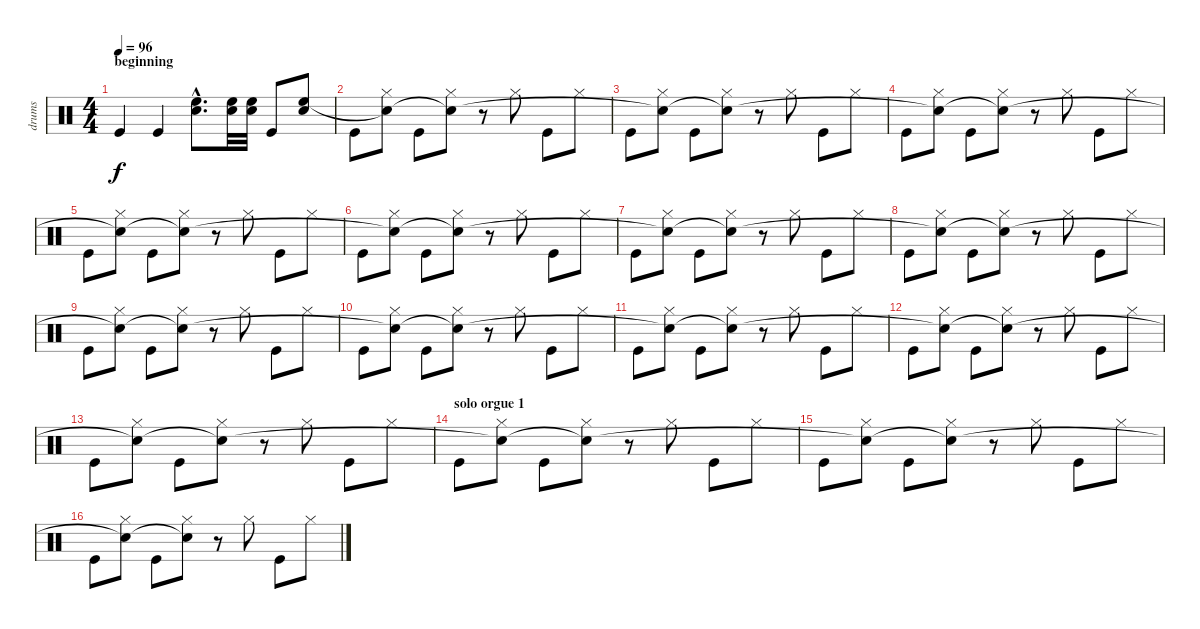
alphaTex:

\track ("drums" "drums") {instrument percussion}
\staff {score}
\articulation defaults
\ts (4 4)
\section ("" "beginning")
\tempo 96
\clef neutral
\ks c "Kick (hit)".4{dy f} "Kick (hit)".4
("Electric Snare (hit)"{hac} "High Floor Tom (hit)"{hac}).8{d} ("Electric Snare (hit)" "High Floor Tom (hit)").32 ("Electric Snare (hit)" "High Floor Tom (hit)").32 "Kick (hit)".8 ("Electric Snare (hit)" "High Floor Tom (hit)").8 |
"Kick (hit)".8 ("Hi-Hat (closed)" "Snare (hit)"{t}).8 "Kick (hit)".8 ("Hi-Hat (closed)" "Snare (hit)"{t}).8 r.8 "Hi-Hat (closed)".8 "Kick (hit)".8 "Hi-Hat (closed)".8 |
"Kick (hit)".8 ("Hi-Hat (closed)" "Snare (hit)"{t}).8 "Kick (hit)".8 ("Hi-Hat (closed)" "Snare (hit)"{t}).8 r.8 "Hi-Hat (closed)".8 "Kick (hit)".8 "Hi-Hat (closed)".8 |
"Kick (hit)".8 ("Hi-Hat (closed)" "Snare (hit)"{t}).8 "Kick (hit)".8 ("Hi-Hat (closed)" "Snare (hit)"{t}).8 r.8 "Hi-Hat (closed)".8 "Kick (hit)".8 "Hi-Hat (closed)".8 |
"Kick (hit)".8 ("Hi-Hat (closed)" "Snare (hit)"{t}).8 "Kick (hit)".8 ("Hi-Hat (closed)" "Snare (hit)"{t}).8 r.8 "Hi-Hat (closed)".8 "Kick (hit)".8 "Hi-Hat (closed)".8 |
"Kick (hit)".8 ("Hi-Hat (closed)" "Snare (hit)"{t}).8 "Kick (hit)".8 ("Hi-Hat (closed)" "Snare (hit)"{t}).8 r.8 "Hi-Hat (closed)".8 "Kick (hit)".8 "Hi-Hat (closed)".8 |
"Kick (hit)".8 ("Hi-Hat (closed)" "Snare (hit)"{t}).8 "Kick (hit)".8 ("Hi-Hat (closed)" "Snare (hit)"{t}).8 r.8 "Hi-Hat (closed)".8 "Kick (hit)".8 "Hi-Hat (closed)".8 |
"Kick (hit)".8 ("Hi-Hat (closed)" "Snare (hit)"{t}).8 "Kick (hit)".8 ("Hi-Hat (closed)" "Snare (hit)"{t}).8 r.8 "Hi-Hat (closed)".8 "Kick (hit)".8 "Hi-Hat (closed)".8 |
"Kick (hit)".8 ("Hi-Hat (closed)" "Snare (hit)"{t}).8 "Kick (hit)".8 ("Hi-Hat (closed)" "Snare (hit)"{t}).8 r.8 "Hi-Hat (closed)".8 "Kick (hit)".8 "Hi-Hat (closed)".8 |
"Kick (hit)".8 ("Hi-Hat (closed)" "Snare (hit)"{t}).8 "Kick (hit)".8 ("Hi-Hat (closed)" "Snare (hit)"{t}).8 r.8 "Hi-Hat (closed)".8 "Kick (hit)".8 "Hi-Hat (closed)".8 |
"Kick (hit)".8 ("Hi-Hat (closed)" "Snare (hit)"{t}).8 "Kick (hit)".8 ("Hi-Hat (closed)" "Snare (hit)"{t}).8 r.8 "Hi-Hat (closed)".8 "Kick (hit)".8 "Hi-Hat (closed)".8 |
"Kick (hit)".8 ("Hi-Hat (closed)" "Snare (hit)"{t}).8 "Kick (hit)".8 ("Hi-Hat (closed)" "Snare (hit)"{t}).8 r.8 "Hi-Hat (closed)".8 "Kick (hit)".8 "Hi-Hat (closed)".8 |
"Kick (hit)".8 ("Hi-Hat (closed)" "Snare (hit)"{t}).8 "Kick (hit)".8 ("Hi-Hat (closed)" "Snare (hit)"{t}).8 r.8 "Hi-Hat (closed)".8 "Kick (hit)".8 "Hi-Hat (closed)".8 |
\section ("" "solo orgue 1")
"Kick (hit)".8 ("Hi-Hat (closed)" "Snare (hit)"{t}).8 "Kick (hit)".8 ("Hi-Hat (closed)" "Snare (hit)"{t}).8 r.8 "Hi-Hat (closed)".8 "Kick (hit)".8 "Hi-Hat (closed)".8 |
"Kick (hit)".8 ("Hi-Hat (closed)" "Snare (hit)"{t}).8 "Kick (hit)".8 ("Hi-Hat (closed)" "Snare (hit)"{t}).8 r.8 "Hi-Hat (closed)".8 "Kick (hit)".8 "Hi-Hat (closed)".8 |
"Kick (hit)".8 ("Hi-Hat (closed)" "Snare (hit)"{t}).8 "Kick (hit)".8 ("Hi-Hat (closed)" "Snare (hit)"{t}).8 r.8 "Hi-Hat (closed)".8 "Kick (hit)".8 "Hi-Hat (closed)".8
